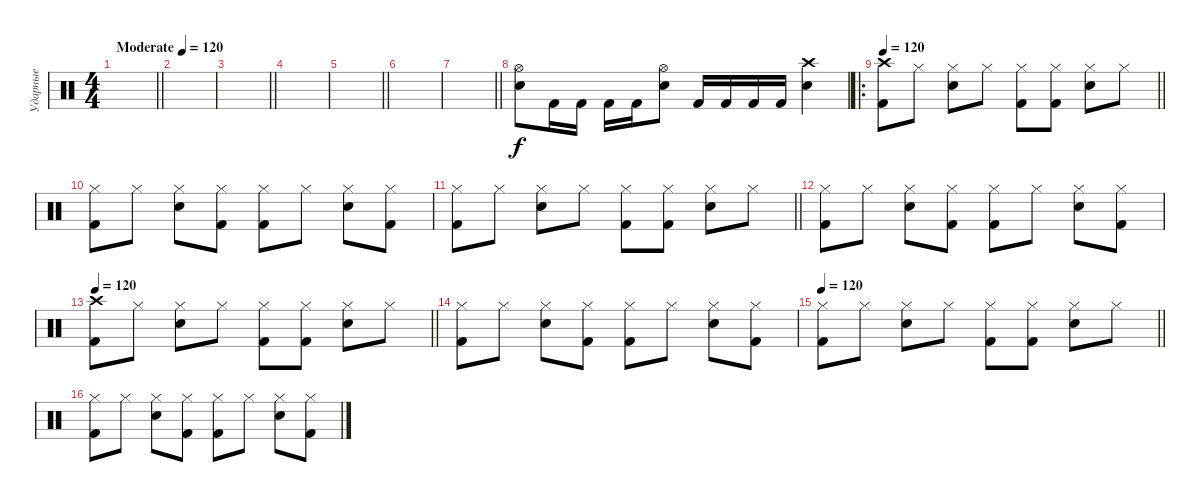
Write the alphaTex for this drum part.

\track ("Ударные" "Ударные") {instrument percussion}
\staff {score}
\articulation defaults
\ts (4 4)
\tempo (120 "Moderate")
\clef neutral
\barLineRight lightlight
\ks c
|
|
\barLineRight lightlight
|
|
\barLineRight lightlight
|
|
\barLineRight lightlight
|
("Hi-Hat (open)" "Electric Snare (hit)").8 "Kick (hit) 2".16 "Kick (hit) 2".16 "Kick (hit) 2".16 "Kick (hit) 2".16 ("Hi-Hat (open)" "Electric Snare (hit)").8 "Kick (hit) 2".16 "Kick (hit) 2".16 "Kick (hit) 2".16 "Kick (hit) 2".16 ("Crash high (hit)" "Electric Snare (hit)").4 |
\ro
\tempo 120
\barLineRight lightlight
("Crash high (hit)" "Kick (hit) 2").8 "Hi-Hat (closed)".8 ("Hi-Hat (closed)" "Electric Snare (hit)").8 "Hi-Hat (closed)".8 ("Hi-Hat (closed)" "Kick (hit) 2").8 ("Hi-Hat (closed)" "Kick (hit) 2").8 ("Hi-Hat (closed)" "Electric Snare (hit)").8 "Hi-Hat (closed)".8 |
("Hi-Hat (closed)" "Kick (hit) 2").8 "Hi-Hat (closed)".8 ("Hi-Hat (closed)" "Electric Snare (hit)").8 ("Hi-Hat (closed)" "Kick (hit) 2").8 ("Hi-Hat (closed)" "Kick (hit) 2").8 "Hi-Hat (closed)".8 ("Hi-Hat (closed)" "Electric Snare (hit)").8 ("Hi-Hat (closed)" "Kick (hit) 2").8 |
\barLineRight lightlight
("Hi-Hat (closed)" "Kick (hit) 2").8 "Hi-Hat (closed)".8 ("Hi-Hat (closed)" "Electric Snare (hit)").8 "Hi-Hat (closed)".8 ("Hi-Hat (closed)" "Kick (hit) 2").8 ("Hi-Hat (closed)" "Kick (hit) 2").8 ("Hi-Hat (closed)" "Electric Snare (hit)").8 "Hi-Hat (closed)".8 |
("Hi-Hat (closed)" "Kick (hit) 2").8 "Hi-Hat (closed)".8 ("Hi-Hat (closed)" "Electric Snare (hit)").8 ("Hi-Hat (closed)" "Kick (hit) 2").8 ("Hi-Hat (closed)" "Kick (hit) 2").8 "Hi-Hat (closed)".8 ("Hi-Hat (closed)" "Electric Snare (hit)").8 ("Hi-Hat (closed)" "Kick (hit) 2").8 |
\tempo 120
\barLineRight lightlight
("Crash high (hit)" "Kick (hit) 2").8 "Hi-Hat (closed)".8 ("Hi-Hat (closed)" "Electric Snare (hit)").8 "Hi-Hat (closed)".8 ("Hi-Hat (closed)" "Kick (hit) 2").8 ("Hi-Hat (closed)" "Kick (hit) 2").8 ("Hi-Hat (closed)" "Electric Snare (hit)").8 "Hi-Hat (closed)".8 |
("Hi-Hat (closed)" "Kick (hit) 2").8 "Hi-Hat (closed)".8 ("Hi-Hat (closed)" "Electric Snare (hit)").8 ("Hi-Hat (closed)" "Kick (hit) 2").8 ("Hi-Hat (closed)" "Kick (hit) 2").8 "Hi-Hat (closed)".8 ("Hi-Hat (closed)" "Electric Snare (hit)").8 ("Hi-Hat (closed)" "Kick (hit) 2").8 |
\tempo 120
\barLineRight lightlight
("Hi-Hat (closed)" "Kick (hit) 2").8 "Hi-Hat (closed)".8 ("Hi-Hat (closed)" "Electric Snare (hit)").8 "Hi-Hat (closed)".8 ("Hi-Hat (closed)" "Kick (hit) 2").8 ("Hi-Hat (closed)" "Kick (hit) 2").8 ("Hi-Hat (closed)" "Electric Snare (hit)").8 "Hi-Hat (closed)".8 |
("Hi-Hat (closed)" "Kick (hit) 2").8 "Hi-Hat (closed)".8 ("Hi-Hat (closed)" "Electric Snare (hit)").8 ("Hi-Hat (closed)" "Kick (hit) 2").8 ("Hi-Hat (closed)" "Kick (hit) 2").8 "Hi-Hat (closed)".8 ("Hi-Hat (closed)" "Electric Snare (hit)").8 ("Hi-Hat (closed)" "Kick (hit) 2").8
